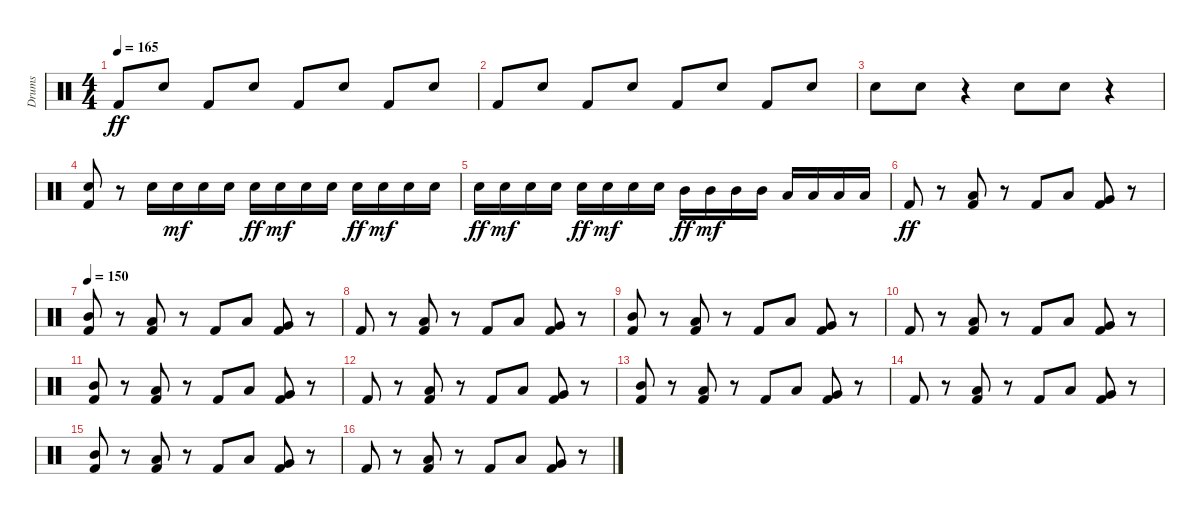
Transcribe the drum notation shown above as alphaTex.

\track ("Drums" "Drums") {instrument percussion}
\staff {score}
\articulation defaults
\ts (4 4)
\tempo 165
\clef neutral
\ks c "Kick (hit) 2".8{dy ff} "Snare (hit) 2".8 "Kick (hit) 2".8 "Snare (hit) 2".8 "Kick (hit) 2".8 "Snare (hit) 2".8 "Kick (hit) 2".8 "Snare (hit) 2".8
|
"Kick (hit) 2".8 "Snare (hit) 2".8 "Kick (hit) 2".8 "Snare (hit) 2".8 "Kick (hit) 2".8 "Snare (hit) 2".8 "Kick (hit) 2".8 "Snare (hit) 2".8 |
"Snare (hit) 2".8 "Snare (hit) 2".8 r.4 "Snare (hit) 2".8 "Snare (hit) 2".8 r.4 |
("Snare (hit) 2" "Kick (hit) 2").8 r.8 "Snare (hit) 2".16 "Snare (hit) 2".16{dy mf} "Snare (hit) 2".16 "Snare (hit) 2".16 "Snare (hit) 2".16{dy ff} "Snare (hit) 2".16{dy mf} "Snare (hit) 2".16 "Snare (hit) 2".16 "Snare (hit) 2".16{dy ff} "Snare (hit) 2".16{dy mf} "Snare (hit) 2".16 "Snare (hit) 2".16 |
"Snare (hit) 2".16{dy ff} "Snare (hit) 2".16{dy mf} "Snare (hit) 2".16 "Snare (hit) 2".16 "Snare (hit) 2".16{dy ff} "Snare (hit) 2".16{dy mf} "Snare (hit) 2".16 "Snare (hit) 2".16 "Mid Tom (hit)".16{dy ff} "Mid Tom (hit)".16{dy mf} "Mid Tom (hit)".16 "Mid Tom (hit)".16 "Low Tom (hit)".16 "Low Tom (hit)".16 "Low Tom (hit)".16 "Low Tom (hit)".16 |
"Kick (hit) 2".8{dy ff} r.8 ("Kick (hit) 2" "Low Tom (hit)").8 r.8 "Kick (hit) 2".8 "Low Tom (hit)".8 ("Kick (hit) 2" "Very Low Tom (hit)").8 r.8 |
\tempo 150
("Mid Tom (hit)" "Kick (hit) 2").8 r.8 ("Kick (hit) 2" "Low Tom (hit)").8 r.8 "Kick (hit) 2".8 "Low Tom (hit)".8 ("Kick (hit) 2" "Very Low Tom (hit)").8 r.8 |
"Kick (hit) 2".8 r.8 ("Low Tom (hit)" "Kick (hit) 2").8 r.8 "Kick (hit) 2".8 "Low Tom (hit)".8 ("Very Low Tom (hit)" "Kick (hit) 2").8 r.8 |
("Mid Tom (hit)" "Kick (hit) 2").8 r.8 ("Low Tom (hit)" "Kick (hit) 2").8 r.8 "Kick (hit) 2".8 "Low Tom (hit)".8 ("Very Low Tom (hit)" "Kick (hit) 2").8 r.8 |
"Kick (hit) 2".8 r.8 ("Low Tom (hit)" "Kick (hit) 2").8 r.8 "Kick (hit) 2".8 "Low Tom (hit)".8 ("Very Low Tom (hit)" "Kick (hit) 2").8 r.8 |
("Kick (hit) 2" "Mid Tom (hit)").8 r.8 ("Low Tom (hit)" "Kick (hit) 2").8 r.8 "Kick (hit) 2".8 "Low Tom (hit)".8 ("Very Low Tom (hit)" "Kick (hit) 2").8 r.8 |
"Kick (hit) 2".8 r.8 ("Kick (hit) 2" "Low Tom (hit)").8 r.8 "Kick (hit) 2".8 "Low Tom (hit)".8 ("Kick (hit) 2" "Very Low Tom (hit)").8 r.8 |
("Kick (hit) 2" "Mid Tom (hit)").8 r.8 ("Kick (hit) 2" "Low Tom (hit)").8 r.8 "Kick (hit) 2".8 "Low Tom (hit)".8 ("Kick (hit) 2" "Very Low Tom (hit)").8 r.8 |
"Kick (hit) 2".8 r.8 ("Low Tom (hit)" "Kick (hit) 2").8 r.8 "Kick (hit) 2".8 "Low Tom (hit)".8 ("Very Low Tom (hit)" "Kick (hit) 2").8 r.8 |
("Kick (hit) 2" "Mid Tom (hit)").8 r.8 ("Low Tom (hit)" "Kick (hit) 2").8 r.8 "Kick (hit) 2".8 "Low Tom (hit)".8 ("Very Low Tom (hit)" "Kick (hit) 2").8 r.8 |
"Kick (hit) 2".8 r.8 ("Kick (hit) 2" "Low Tom (hit)").8 r.8 "Kick (hit) 2".8 "Low Tom (hit)".8 ("Kick (hit) 2" "Very Low Tom (hit)").8 r.8
